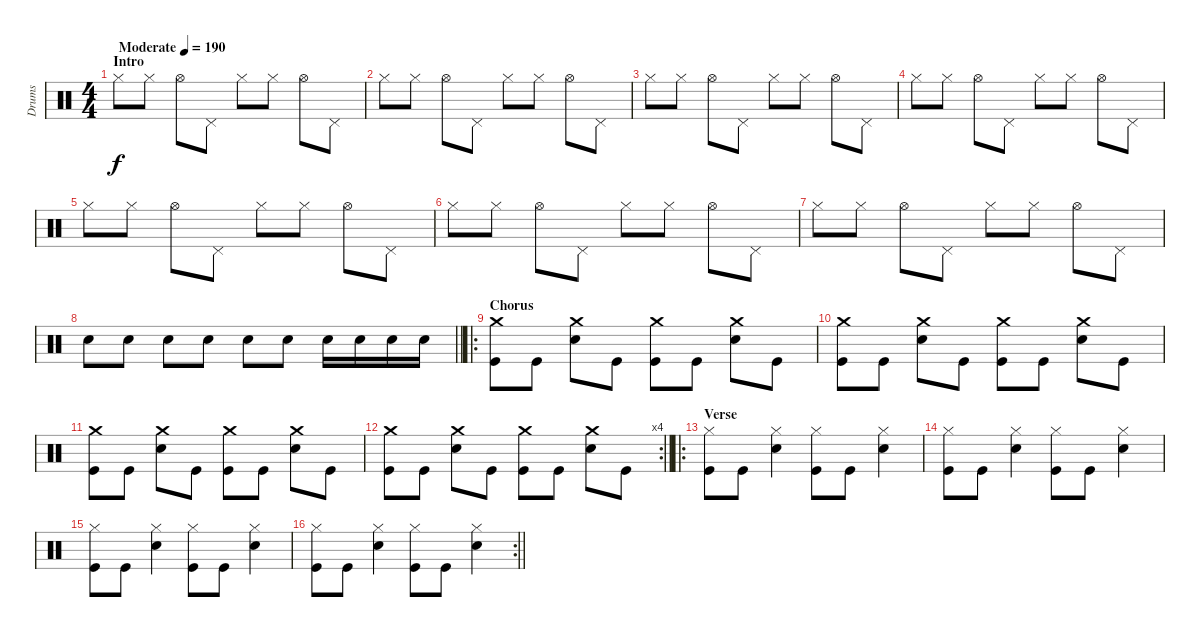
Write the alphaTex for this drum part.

\track ("Drums" "Drums") {instrument percussion}
\staff {score}
\articulation defaults
\ts (4 4)
\section ("" "Intro")
\tempo (190 "Moderate")
\clef neutral
\ks c "Hi-Hat (closed)".8{dy f} "Hi-Hat (closed)".8 "Hi-Hat (open)".8 "Pedal Hi-Hat (hit)".8 "Hi-Hat (closed)".8 "Hi-Hat (closed)".8 "Hi-Hat (open)".8 "Pedal Hi-Hat (hit)".8
|
"Hi-Hat (closed)".8 "Hi-Hat (closed)".8 "Hi-Hat (open)".8 "Pedal Hi-Hat (hit)".8 "Hi-Hat (closed)".8 "Hi-Hat (closed)".8 "Hi-Hat (open)".8 "Pedal Hi-Hat (hit)".8 |
"Hi-Hat (closed)".8 "Hi-Hat (closed)".8 "Hi-Hat (open)".8 "Pedal Hi-Hat (hit)".8 "Hi-Hat (closed)".8 "Hi-Hat (closed)".8 "Hi-Hat (open)".8 "Pedal Hi-Hat (hit)".8 |
"Hi-Hat (closed)".8 "Hi-Hat (closed)".8 "Hi-Hat (open)".8 "Pedal Hi-Hat (hit)".8 "Hi-Hat (closed)".8 "Hi-Hat (closed)".8 "Hi-Hat (open)".8 "Pedal Hi-Hat (hit)".8 |
"Hi-Hat (closed)".8 "Hi-Hat (closed)".8 "Hi-Hat (open)".8 "Pedal Hi-Hat (hit)".8 "Hi-Hat (closed)".8 "Hi-Hat (closed)".8 "Hi-Hat (open)".8 "Pedal Hi-Hat (hit)".8 |
"Hi-Hat (closed)".8 "Hi-Hat (closed)".8 "Hi-Hat (open)".8 "Pedal Hi-Hat (hit)".8 "Hi-Hat (closed)".8 "Hi-Hat (closed)".8 "Hi-Hat (open)".8 "Pedal Hi-Hat (hit)".8 |
"Hi-Hat (closed)".8 "Hi-Hat (closed)".8 "Hi-Hat (open)".8 "Pedal Hi-Hat (hit)".8 "Hi-Hat (closed)".8 "Hi-Hat (closed)".8 "Hi-Hat (open)".8 "Pedal Hi-Hat (hit)".8 |
\barLineRight lightlight "Snare (hit) 2".8 "Snare (hit) 2".8 "Snare (hit) 2".8 "Snare (hit) 2".8 "Snare (hit) 2".8 "Snare (hit) 2".8 "Snare (hit) 2".16 "Snare (hit) 2".16 "Snare (hit) 2".16 "Snare (hit) 2".16
|
\ro
\section ("" "Chorus")
("Crash medium (hit)" "Kick (hit)").8 "Kick (hit)".8 ("Crash medium (hit)" "Snare (hit) 2").8 "Kick (hit)".8 ("Crash medium (hit)" "Kick (hit)").8 "Kick (hit)".8 ("Crash medium (hit)" "Snare (hit) 2").8 "Kick (hit)".8 |
("Crash medium (hit)" "Kick (hit)").8 "Kick (hit)".8 ("Crash medium (hit)" "Snare (hit) 2").8 "Kick (hit)".8 ("Crash medium (hit)" "Kick (hit)").8 "Kick (hit)".8 ("Crash medium (hit)" "Snare (hit) 2").8 "Kick (hit)".8 |
("Crash medium (hit)" "Kick (hit)").8 "Kick (hit)".8 ("Crash medium (hit)" "Snare (hit) 2").8 "Kick (hit)".8 ("Crash medium (hit)" "Kick (hit)").8 "Kick (hit)".8 ("Crash medium (hit)" "Snare (hit) 2").8 "Kick (hit)".8 |
\rc 4
\barLineRight lightlight
("Crash medium (hit)" "Kick (hit)").8 "Kick (hit)".8 ("Crash medium (hit)" "Snare (hit) 2").8 "Kick (hit)".8 ("Crash medium (hit)" "Kick (hit)").8 "Kick (hit)".8 ("Crash medium (hit)" "Snare (hit) 2").8 "Kick (hit)".8 |
\ro
\section ("" "Verse")
("Hi-Hat (closed)" "Kick (hit)").8 "Kick (hit)".8 ("Hi-Hat (closed)" "Snare (hit) 2").4 ("Hi-Hat (closed)" "Kick (hit)").8 "Kick (hit)".8 ("Hi-Hat (closed)" "Snare (hit) 2").4 |
("Hi-Hat (closed)" "Kick (hit)").8 "Kick (hit)".8 ("Hi-Hat (closed)" "Snare (hit) 2").4 ("Hi-Hat (closed)" "Kick (hit)").8 "Kick (hit)".8 ("Hi-Hat (closed)" "Snare (hit) 2").4 |
("Hi-Hat (closed)" "Kick (hit)").8 "Kick (hit)".8 ("Hi-Hat (closed)" "Snare (hit) 2").4 ("Hi-Hat (closed)" "Kick (hit)").8 "Kick (hit)".8 ("Hi-Hat (closed)" "Snare (hit) 2").4 |
\rc 2
\barLineRight lightlight
("Hi-Hat (closed)" "Kick (hit)").8 "Kick (hit)".8 ("Hi-Hat (closed)" "Snare (hit) 2").4 ("Hi-Hat (closed)" "Kick (hit)").8 "Kick (hit)".8 ("Hi-Hat (closed)" "Snare (hit) 2").4
